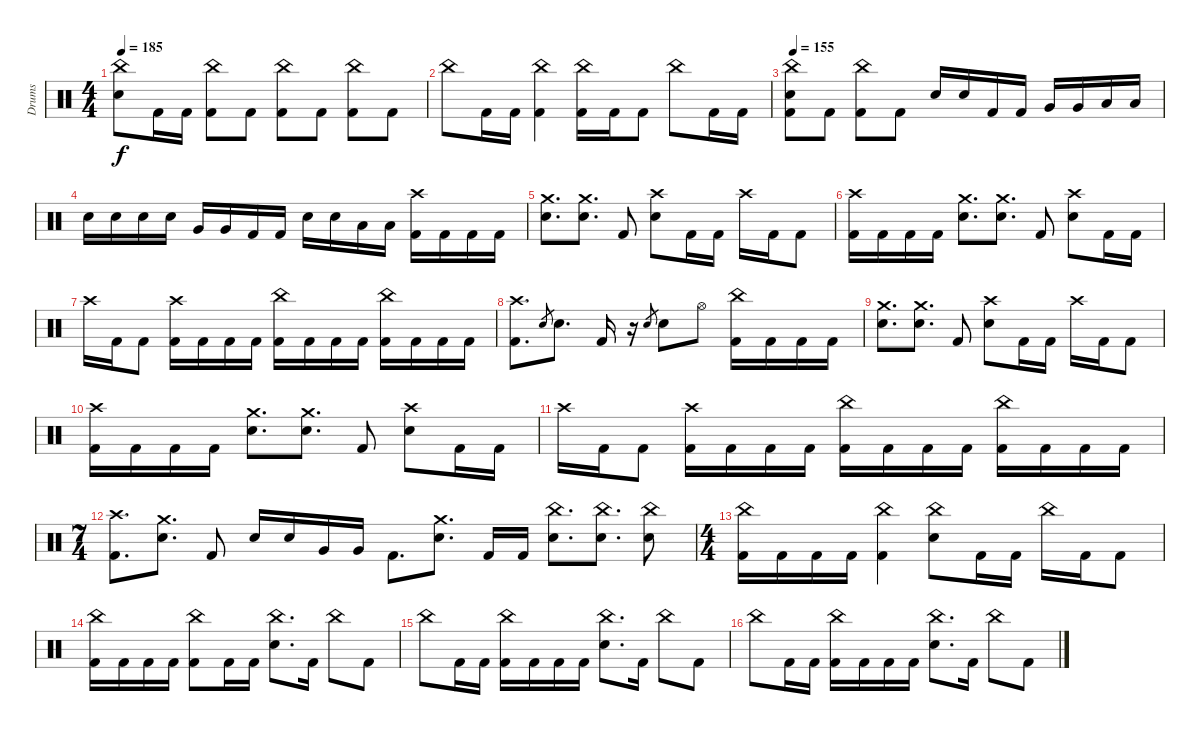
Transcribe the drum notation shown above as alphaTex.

\track ("Drums" "Drums") {instrument percussion}
\staff {score}
\articulation defaults
\ts (4 4)
\tempo 185
\clef neutral
\ks c
("China (hit)" "Electric Snare (hit)").8{dy f} "Kick (hit) 2".16 "Kick (hit) 2".16 ("China (hit)" "Kick (hit) 2").8 "Kick (hit) 2".8 ("China (hit)" "Kick (hit) 2").8 "Kick (hit) 2".8 ("China (hit)" "Kick (hit) 2").8 "Kick (hit) 2".8 |
"China (hit)".8 "Kick (hit) 2".16 "Kick (hit) 2".16 ("China (hit)" "Kick (hit) 2").4 ("China (hit)" "Kick (hit) 2").16 "Kick (hit) 2".16 "Kick (hit) 2".8 "China (hit)".8 "Kick (hit) 2".16 "Kick (hit) 2".16 |
\tempo 155
("China (hit)" "Electric Snare (hit)" "Kick (hit) 2").8 "Kick (hit) 2".8 ("China (hit)" "Kick (hit) 2").8 "Kick (hit) 2".8 "Electric Snare (hit)".16 "Electric Snare (hit)".16 "Kick (hit) 2".16 "Kick (hit) 2".16 "Very Low Tom (hit)".16 "Very Low Tom (hit)".16 "Low Floor Tom (hit)".16 "Low Floor Tom (hit)".16 |
"Electric Snare (hit)".16 "Electric Snare (hit)".16 "Electric Snare (hit)".16 "Electric Snare (hit)".16 "Very Low Tom (hit)".16 "Very Low Tom (hit)".16 "Kick (hit) 2".16 "Kick (hit) 2".16 "Electric Snare (hit)".16 "Electric Snare (hit)".16 "Low Floor Tom (hit)".16 "Low Floor Tom (hit)".16 ("Crash high (hit)" "Kick (hit) 2").16 "Kick (hit) 2".16 "Kick (hit) 2".16 "Kick (hit) 2".16 |
("Crash medium (hit)" "Electric Snare (hit)").8{d} ("Crash medium (hit)" "Electric Snare (hit)").8{d} "Kick (hit) 2".8 ("Crash high (hit)" "Electric Snare (hit)").8 "Kick (hit) 2".16 "Kick (hit) 2".16 "Crash high (hit)".16 "Kick (hit) 2".16 "Kick (hit) 2".8 |
("Crash high (hit)" "Kick (hit) 2").16 "Kick (hit) 2".16 "Kick (hit) 2".16 "Kick (hit) 2".16 ("Crash medium (hit)" "Electric Snare (hit)").8{d} ("Crash medium (hit)" "Electric Snare (hit)").8{d} "Kick (hit) 2".8 ("Crash high (hit)" "Electric Snare (hit)").8 "Kick (hit) 2".16 "Kick (hit) 2".16 |
"Crash high (hit)".16 "Kick (hit) 2".16 "Kick (hit) 2".8 ("Crash high (hit)" "Kick (hit) 2").16 "Kick (hit) 2".16 "Kick (hit) 2".16 "Kick (hit) 2".16 ("China (hit)" "Kick (hit) 2").16 "Kick (hit) 2".16 "Kick (hit) 2".16 "Kick (hit) 2".16 ("China (hit)" "Kick (hit) 2").16 "Kick (hit) 2".16 "Kick (hit) 2".16 "Kick (hit) 2".16 |
("Crash high (hit)" "Kick (hit) 2").8{d} "Electric Snare (hit)".8{gr} "Electric Snare (hit)".8{d} "Kick (hit) 2".16 r.16 "Electric Snare (hit)".8{gr} "Electric Snare (hit)".8 "Hi-Hat (open)".8 ("China (hit)" "Kick (hit) 2").16 "Kick (hit) 2".16 "Kick (hit) 2".16 "Kick (hit) 2".16 |
("Crash medium (hit)" "Electric Snare (hit)").8{d} ("Crash medium (hit)" "Electric Snare (hit)").8{d} "Kick (hit) 2".8 ("Crash high (hit)" "Electric Snare (hit)").8 "Kick (hit) 2".16 "Kick (hit) 2".16 "Crash high (hit)".16 "Kick (hit) 2".16 "Kick (hit) 2".8 |
("Crash high (hit)" "Kick (hit) 2").16 "Kick (hit) 2".16 "Kick (hit) 2".16 "Kick (hit) 2".16 ("Crash medium (hit)" "Electric Snare (hit)").8{d} ("Crash medium (hit)" "Electric Snare (hit)").8{d} "Kick (hit) 2".8 ("Crash high (hit)" "Electric Snare (hit)").8 "Kick (hit) 2".16 "Kick (hit) 2".16 |
"Crash high (hit)".16 "Kick (hit) 2".16 "Kick (hit) 2".8 ("Crash high (hit)" "Kick (hit) 2").16 "Kick (hit) 2".16 "Kick (hit) 2".16 "Kick (hit) 2".16 ("China (hit)" "Kick (hit) 2").16 "Kick (hit) 2".16 "Kick (hit) 2".16 "Kick (hit) 2".16 ("China (hit)" "Kick (hit) 2").16 "Kick (hit) 2".16 "Kick (hit) 2".16 "Kick (hit) 2".16 |
\ts (7 4)
("Crash high (hit)" "Kick (hit) 2").8{d} ("Crash medium (hit)" "Electric Snare (hit)").8{d} "Kick (hit) 2".8 "Electric Snare (hit)".16 "Electric Snare (hit)".16 "Very Low Tom (hit)".16 "Very Low Tom (hit)".16 "Kick (hit) 2".8{d} ("Crash medium (hit)" "Electric Snare (hit)").8{d} "Kick (hit) 2".16 "Kick (hit) 2".16 ("China (hit)" "Electric Snare (hit)").8{d} ("China (hit)" "Electric Snare (hit)").8{d} ("China (hit)" "Electric Snare (hit)").8 |
\ts (4 4)
("China (hit)" "Kick (hit) 2").16 "Kick (hit) 2".16 "Kick (hit) 2".16 "Kick (hit) 2".16 ("China (hit)" "Kick (hit) 2").4 ("China (hit)" "Electric Snare (hit)").8 "Kick (hit) 2".16 "Kick (hit) 2".16 "China (hit)".16 "Kick (hit) 2".16 "Kick (hit) 2".8 |
("China (hit)" "Kick (hit) 2").16 "Kick (hit) 2".16 "Kick (hit) 2".16 "Kick (hit) 2".16 ("China (hit)" "Kick (hit) 2").8 "Kick (hit) 2".16 "Kick (hit) 2".16 ("China (hit)" "Electric Snare (hit)").8{d} "Kick (hit) 2".16 "China (hit)".8 "Kick (hit) 2".8 |
"China (hit)".8 "Kick (hit) 2".16 "Kick (hit) 2".16 ("China (hit)" "Kick (hit) 2").16 "Kick (hit) 2".16 "Kick (hit) 2".16 "Kick (hit) 2".16 ("China (hit)" "Electric Snare (hit)").8{d} "Kick (hit) 2".16 "China (hit)".8 "Kick (hit) 2".8 |
"China (hit)".8 "Kick (hit) 2".16 "Kick (hit) 2".16 ("China (hit)" "Kick (hit) 2").16 "Kick (hit) 2".16 "Kick (hit) 2".16 "Kick (hit) 2".16 ("China (hit)" "Electric Snare (hit)").8{d} "Kick (hit) 2".16 "China (hit)".8 "Kick (hit) 2".8
